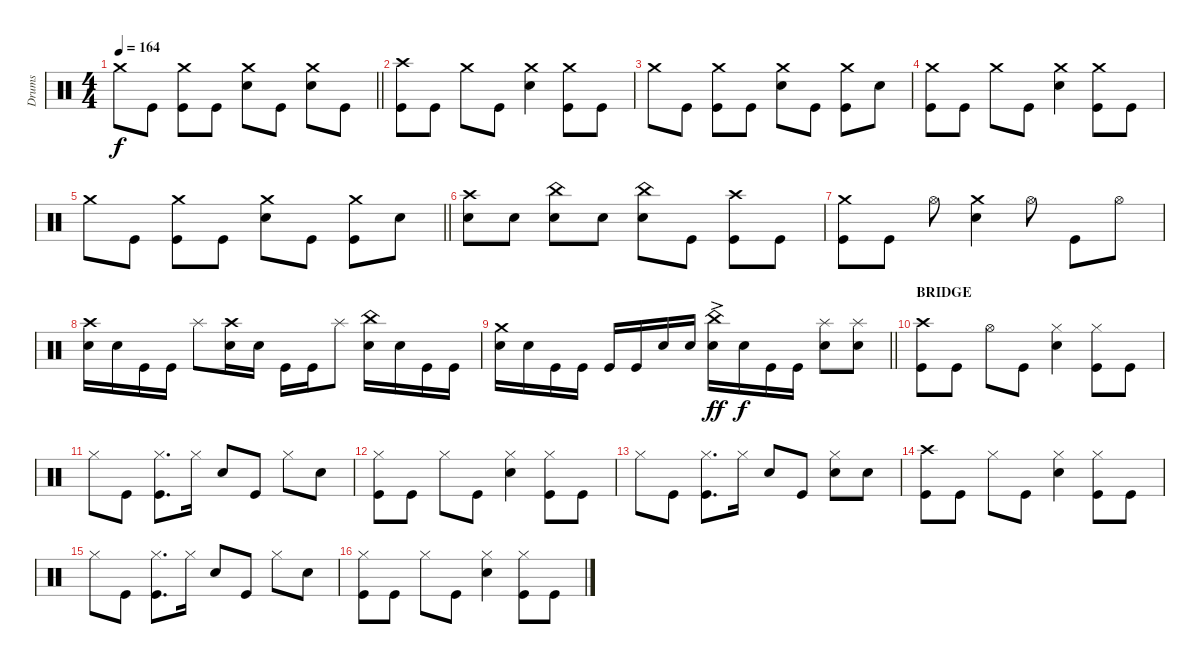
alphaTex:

\track ("Drums" "Drums") {instrument percussion}
\staff
\articulation defaults
\ts (4 4)
\tempo 164
\clef neutral
\barLineRight lightlight
\ks c "Crash medium (hit)".8{dy f} "Kick (hit)".8
("Crash medium (hit)" "Kick (hit)").8 "Kick (hit)".8 ("Crash medium (hit)" "Electric Snare (hit)").8 "Kick (hit)".8 ("Crash medium (hit)" "Electric Snare (hit)").8 "Kick (hit)".8 |
("Crash high (hit)" "Kick (hit)").8 "Kick (hit)".8 "Crash medium (hit)".8 "Kick (hit)".8 ("Crash medium (hit)" "Electric Snare (hit)").4 ("Crash medium (hit)" "Kick (hit)").8 "Kick (hit)".8 |
"Crash medium (hit)".8 "Kick (hit)".8 ("Crash medium (hit)" "Kick (hit)").8 "Kick (hit)".8 ("Crash medium (hit)" "Electric Snare (hit)").8 "Kick (hit)".8 ("Crash medium (hit)" "Kick (hit)").8 "Electric Snare (hit)".8 |
("Crash medium (hit)" "Kick (hit)").8 "Kick (hit)".8 "Crash medium (hit)".8 "Kick (hit)".8 ("Crash medium (hit)" "Electric Snare (hit)").4 ("Crash medium (hit)" "Kick (hit)").8 "Kick (hit)".8 |
\barLineRight lightlight "Crash medium (hit)".8 "Kick (hit)".8
("Crash medium (hit)" "Kick (hit)").8 "Kick (hit)".8 ("Crash medium (hit)" "Electric Snare (hit)").8 "Kick (hit)".8 ("Crash medium (hit)" "Kick (hit)").8 "Electric Snare (hit)".8 |
("Crash high (hit)" "Electric Snare (hit)").8 "Electric Snare (hit)".8 ("China (hit)" "Electric Snare (hit)").8 "Electric Snare (hit)".8 ("China (hit)" "Electric Snare (hit)").8 "Kick (hit)".8 ("Crash high (hit)" "Kick (hit)").8 "Kick (hit)".8 |
("Crash medium (hit)" "Kick (hit)").8 "Kick (hit)".8 "Hi-Hat (open)".8 ("Crash medium (hit)" "Electric Snare (hit)").4 "Hi-Hat (open)".8 "Kick (hit)".8 "Hi-Hat (open)".8 |
("Crash high (hit)" "Electric Snare (hit)").16 "Electric Snare (hit)".16 "Kick (hit)".16 "Kick (hit)".16 "Splash (hit)".8 ("Crash high (hit)" "Electric Snare (hit)").16 "Electric Snare (hit)".16 "Kick (hit)".16 "Kick (hit)".16 "Splash (hit)".8 ("China (hit)" "Electric Snare (hit)").16 "Electric Snare (hit)".16 "Kick (hit)".16 "Kick (hit)".16 |
\barLineRight lightlight
("Crash medium (hit)" "Electric Snare (hit)").16 "Electric Snare (hit)".16 "Kick (hit)".16 "Kick (hit)".16 "Kick (hit)".16 "Kick (hit)".16 "Electric Snare (hit)".16 "Electric Snare (hit)".16 ("China (hit)" "Electric Snare (hit)"{ac}).16{dy ff} "Electric Snare (hit)".16{dy f} "Kick (hit)".16 "Kick (hit)".16 ("Splash (hit)" "Electric Snare (hit)").8 ("Splash (hit)" "Electric Snare (hit)").8 |
\section ("" "BRIDGE")
("Crash high (hit)" "Kick (hit)").8 "Kick (hit)".8 "Hi-Hat (open)".8 "Kick (hit)".8 ("Hi-Hat (closed)" "Electric Snare (hit)").4 ("Hi-Hat (closed)" "Kick (hit)").8 "Kick (hit)".8 |
"Hi-Hat (closed)".8 "Kick (hit)".8 ("Hi-Hat (closed)" "Kick (hit)").8{d} "Hi-Hat (closed)".16 "Electric Snare (hit)".8 "Kick (hit)".8 "Hi-Hat (closed)".8 "Electric Snare (hit)".8 |
("Hi-Hat (closed)" "Kick (hit)").8 "Kick (hit)".8 "Hi-Hat (closed)".8 "Kick (hit)".8 ("Hi-Hat (closed)" "Electric Snare (hit)").4 ("Hi-Hat (closed)" "Kick (hit)").8 "Kick (hit)".8 |
"Hi-Hat (closed)".8 "Kick (hit)".8 ("Hi-Hat (closed)" "Kick (hit)").8{d} "Hi-Hat (closed)".16 "Electric Snare (hit)".8 "Kick (hit)".8 ("Hi-Hat (closed)" "Electric Snare (hit)").8 "Electric Snare (hit)".8 |
("Crash high (hit)" "Kick (hit)").8 "Kick (hit)".8 "Hi-Hat (closed)".8 "Kick (hit)".8 ("Hi-Hat (closed)" "Electric Snare (hit)").4 ("Hi-Hat (closed)" "Kick (hit)").8 "Kick (hit)".8 |
"Hi-Hat (closed)".8 "Kick (hit)".8 ("Hi-Hat (closed)" "Kick (hit)").8{d} "Hi-Hat (closed)".16 "Electric Snare (hit)".8 "Kick (hit)".8 "Hi-Hat (closed)".8 "Electric Snare (hit)".8 |
("Hi-Hat (closed)" "Kick (hit)").8 "Kick (hit)".8 "Hi-Hat (closed)".8 "Kick (hit)".8 ("Hi-Hat (closed)" "Electric Snare (hit)").4 ("Hi-Hat (closed)" "Kick (hit)").8 "Kick (hit)".8
